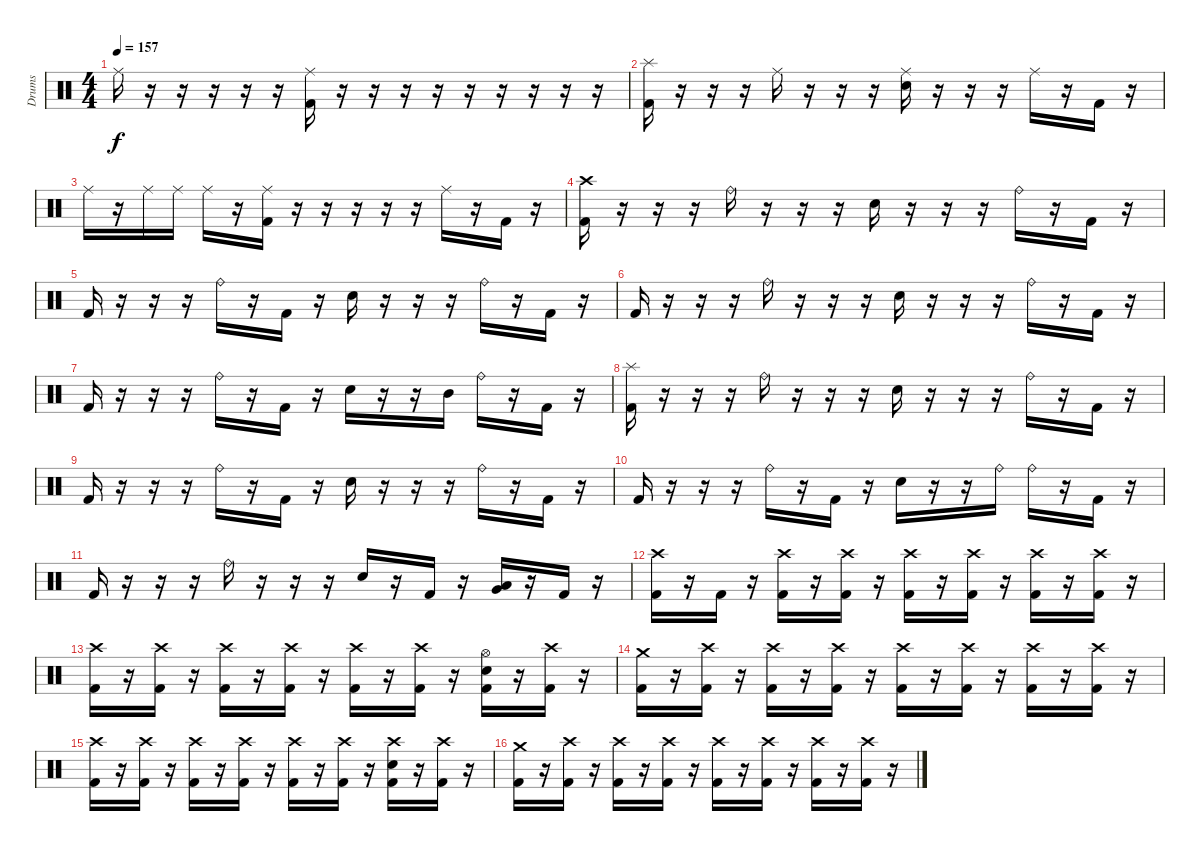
\track ("Drums" "Drums") {instrument percussion}
\staff {score}
\articulation defaults
\ts (4 4)
\tempo 157
\clef neutral
\ks c "Ride (middle)".16{dy f}
r.16 r.16 r.16 r.16 r.16 ("Ride (middle)" "Kick (hit) 2").16 r.16 r.16 r.16 r.16 r.16 r.16 r.16 r.16 r.16 |
("Splash (hit)" "Kick (hit) 2").16 r.16 r.16 r.16 "Ride (middle)".16 r.16 r.16 r.16 ("Ride (middle)" "Snare (hit) 2").16 r.16 r.16 r.16 "Ride (middle)".16 r.16 "Kick (hit) 2".16 r.16 |
"Ride (middle)".16 r.16 "Ride (middle)".16 "Ride (middle)".16 "Ride (middle)".16 r.16 ("Ride (middle)" "Kick (hit) 2").16 r.16 r.16 r.16 r.16 r.16 "Ride (middle)".16 r.16 "Kick (hit) 2".16 r.16 |
("Crash high (hit)" "Kick (hit) 2").16 r.16 r.16 r.16 "Ride (bell)".16 r.16 r.16 r.16 "Snare (hit) 2".16 r.16 r.16 r.16 "Ride (bell)".16 r.16 "Kick (hit) 2".16 r.16 |
"Kick (hit) 2".16 r.16 r.16 r.16 "Ride (bell)".16 r.16 "Kick (hit) 2".16 r.16 "Snare (hit) 2".16 r.16 r.16 r.16 "Ride (bell)".16 r.16 "Kick (hit) 2".16 r.16 |
"Kick (hit) 2".16 r.16 r.16 r.16 "Ride (bell)".16 r.16 r.16 r.16 "Snare (hit) 2".16 r.16 r.16 r.16 "Ride (bell)".16 r.16 "Kick (hit) 2".16 r.16 |
"Kick (hit) 2".16 r.16 r.16 r.16 "Ride (bell)".16 r.16 "Kick (hit) 2".16 r.16 "Snare (hit) 2".16 r.16 r.16 "Mid Tom (hit)".16 "Ride (bell)".16 r.16 "Kick (hit) 2".16 r.16 |
("Splash (hit)" "Kick (hit) 2").16 r.16 r.16 r.16 "Ride (bell)".16 r.16 r.16 r.16 "Snare (hit) 2".16 r.16 r.16 r.16 "Ride (bell)".16 r.16 "Kick (hit) 2".16 r.16 |
"Kick (hit) 2".16 r.16 r.16 r.16 "Ride (bell)".16 r.16 "Kick (hit) 2".16 r.16 "Snare (hit) 2".16 r.16 r.16 r.16 "Ride (bell)".16 r.16 "Kick (hit) 2".16 r.16 |
"Kick (hit) 2".16 r.16 r.16 r.16 "Ride (bell)".16 r.16 "Kick (hit) 2".16 r.16 "Snare (hit) 2".16 r.16 r.16 "Ride (bell)".16 "Ride (bell)".16 r.16 "Kick (hit) 2".16 r.16 |
"Kick (hit) 2".16 r.16 r.16 r.16 "Ride (bell)".16 r.16 r.16 r.16 "Snare (hit) 2".16 r.16 "Kick (hit) 2".16 r.16 ("Very Low Tom (hit)" "Low Tom (hit)").16 r.16 "Kick (hit) 2".16 r.16 |
("Crash high (hit)" "Kick (hit) 2").16 r.16 "Kick (hit) 2".16 r.16 ("Crash high (hit)" "Kick (hit) 2").16 r.16 ("Crash high (hit)" "Kick (hit) 2").16 r.16 ("Crash high (hit)" "Kick (hit) 2").16 r.16 ("Crash high (hit)" "Kick (hit) 2").16 r.16 ("Crash high (hit)" "Kick (hit) 2").16 r.16 ("Crash high (hit)" "Kick (hit) 2").16 r.16 |
("Crash high (hit)" "Kick (hit) 2").16 r.16 ("Crash high (hit)" "Kick (hit) 2").16 r.16 ("Crash high (hit)" "Kick (hit) 2").16 r.16 ("Crash high (hit)" "Kick (hit) 2").16 r.16 ("Crash high (hit)" "Kick (hit) 2").16 r.16 ("Crash high (hit)" "Kick (hit) 2").16 r.16 ("Hi-Hat (open)" "Snare (hit) 2" "Kick (hit) 2").16 r.16 ("Crash high (hit)" "Kick (hit) 2").16 r.16 |
("Crash medium (hit)" "Kick (hit) 2").16 r.16 ("Crash high (hit)" "Kick (hit) 2").16 r.16 ("Crash high (hit)" "Kick (hit) 2").16 r.16 ("Crash high (hit)" "Kick (hit) 2").16 r.16 ("Crash high (hit)" "Kick (hit) 2").16 r.16 ("Crash high (hit)" "Kick (hit) 2").16 r.16 ("Crash high (hit)" "Kick (hit) 2").16 r.16 ("Crash high (hit)" "Kick (hit) 2").16 r.16 |
("Crash high (hit)" "Kick (hit) 2").16 r.16 ("Crash high (hit)" "Kick (hit) 2").16 r.16 ("Crash high (hit)" "Kick (hit) 2").16 r.16 ("Crash high (hit)" "Kick (hit) 2").16 r.16 ("Crash high (hit)" "Kick (hit) 2").16 r.16 ("Crash high (hit)" "Kick (hit) 2").16 r.16 ("Crash high (hit)" "Snare (hit) 2" "Kick (hit) 2").16 r.16 ("Crash high (hit)" "Kick (hit) 2").16 r.16 |
("Crash medium (hit)" "Kick (hit) 2").16 r.16 ("Crash high (hit)" "Kick (hit) 2").16 r.16 ("Crash high (hit)" "Kick (hit) 2").16 r.16 ("Crash high (hit)" "Kick (hit) 2").16 r.16 ("Crash high (hit)" "Kick (hit) 2").16 r.16 ("Crash high (hit)" "Kick (hit) 2").16 r.16 ("Crash high (hit)" "Kick (hit) 2").16 r.16 ("Crash high (hit)" "Kick (hit) 2").16 r.16
